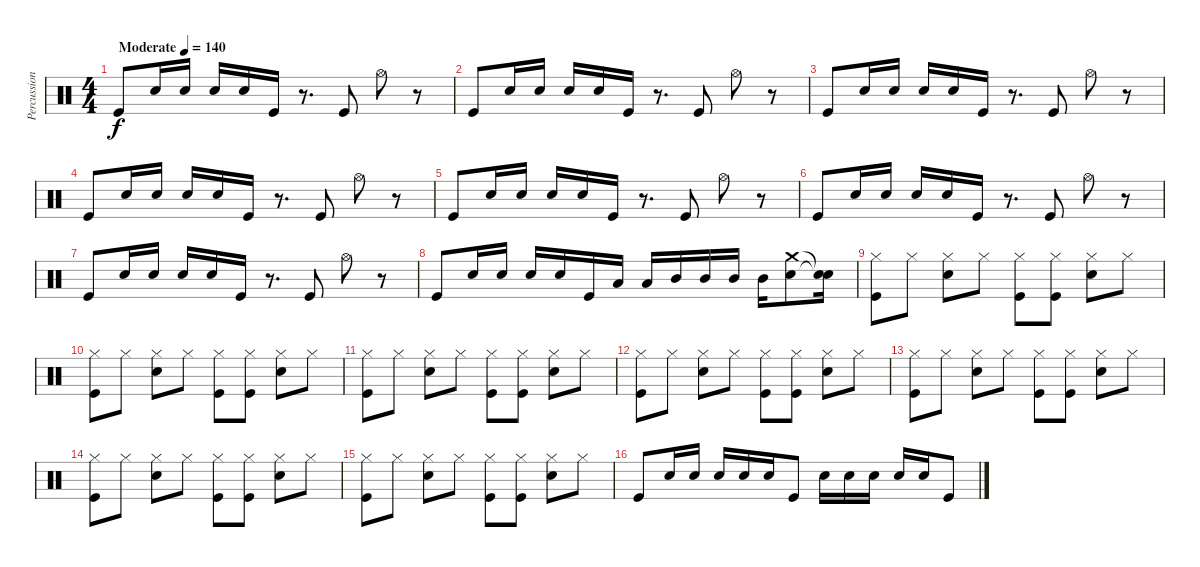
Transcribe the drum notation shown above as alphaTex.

\track ("Percussions" "Percussion") {instrument percussion}
\staff {score}
\articulation defaults
\ts (4 4)
\tempo (140 "Moderate")
\clef neutral
\ks c "Kick (hit)".8{dy f} "Snare (hit) 2".16 "Snare (hit) 2".16 "Snare (hit) 2".16 "Snare (hit) 2".16 "Kick (hit)".16
r.8{d} "Kick (hit)".8 "Hi-Hat (open)".8 r.8 |
"Kick (hit)".8 "Snare (hit) 2".16 "Snare (hit) 2".16 "Snare (hit) 2".16 "Snare (hit) 2".16 "Kick (hit)".16 r.8{d} "Kick (hit)".8 "Hi-Hat (open)".8 r.8 |
"Kick (hit)".8 "Snare (hit) 2".16 "Snare (hit) 2".16 "Snare (hit) 2".16 "Snare (hit) 2".16 "Kick (hit)".16 r.8{d} "Kick (hit)".8 "Hi-Hat (open)".8 r.8 |
"Kick (hit)".8 "Snare (hit) 2".16 "Snare (hit) 2".16 "Snare (hit) 2".16 "Snare (hit) 2".16 "Kick (hit)".16 r.8{d} "Kick (hit)".8 "Hi-Hat (open)".8 r.8 |
"Kick (hit)".8 "Snare (hit) 2".16 "Snare (hit) 2".16 "Snare (hit) 2".16 "Snare (hit) 2".16 "Kick (hit)".16 r.8{d} "Kick (hit)".8 "Hi-Hat (open)".8 r.8 |
"Kick (hit)".8 "Snare (hit) 2".16 "Snare (hit) 2".16 "Snare (hit) 2".16 "Snare (hit) 2".16 "Kick (hit)".16 r.8{d} "Kick (hit)".8 "Hi-Hat (open)".8 r.8 |
"Kick (hit)".8 "Snare (hit) 2".16 "Snare (hit) 2".16 "Snare (hit) 2".16 "Snare (hit) 2".16 "Kick (hit)".16 r.8{d} "Kick (hit)".8 "Hi-Hat (open)".8 r.8 |
"Kick (hit)".8 "Snare (hit) 2".16 "Snare (hit) 2".16 "Snare (hit) 2".16 "Snare (hit) 2".16 "Kick (hit)".16 "Low Tom (hit)".16 "Low Tom (hit)".16 "Mid Tom (hit)".16 "Mid Tom (hit)".16 "Mid Tom (hit)".16 "Mid Tom (hit)".16 ("Crash medium (hit)" "Snare (hit) 2").8 ("Snare (hit)"{t} "Snare (hit)"{t}).16 |
("Hi-Hat (closed)" "Kick (hit)").8 "Hi-Hat (closed)".8 ("Hi-Hat (closed)" "Snare (hit) 2").8 "Hi-Hat (closed)".8 ("Hi-Hat (closed)" "Kick (hit)").8 ("Hi-Hat (closed)" "Kick (hit)").8 ("Hi-Hat (closed)" "Snare (hit) 2").8 "Hi-Hat (closed)".8 |
("Hi-Hat (closed)" "Kick (hit)").8 "Hi-Hat (closed)".8 ("Hi-Hat (closed)" "Snare (hit) 2").8 "Hi-Hat (closed)".8 ("Hi-Hat (closed)" "Kick (hit)").8 ("Hi-Hat (closed)" "Kick (hit)").8 ("Hi-Hat (closed)" "Snare (hit) 2").8 "Hi-Hat (closed)".8 |
("Hi-Hat (closed)" "Kick (hit)").8 "Hi-Hat (closed)".8 ("Hi-Hat (closed)" "Snare (hit) 2").8 "Hi-Hat (closed)".8 ("Hi-Hat (closed)" "Kick (hit)").8 ("Hi-Hat (closed)" "Kick (hit)").8 ("Hi-Hat (closed)" "Snare (hit) 2").8 "Hi-Hat (closed)".8 |
("Hi-Hat (closed)" "Kick (hit)").8 "Hi-Hat (closed)".8 ("Hi-Hat (closed)" "Snare (hit) 2").8 "Hi-Hat (closed)".8 ("Hi-Hat (closed)" "Kick (hit)").8 ("Hi-Hat (closed)" "Kick (hit)").8 ("Hi-Hat (closed)" "Snare (hit) 2").8 "Hi-Hat (closed)".8 |
("Hi-Hat (closed)" "Kick (hit)").8 "Hi-Hat (closed)".8 ("Hi-Hat (closed)" "Snare (hit) 2").8 "Hi-Hat (closed)".8 ("Hi-Hat (closed)" "Kick (hit)").8 ("Hi-Hat (closed)" "Kick (hit)").8 ("Hi-Hat (closed)" "Snare (hit) 2").8 "Hi-Hat (closed)".8 |
("Hi-Hat (closed)" "Kick (hit)").8 "Hi-Hat (closed)".8 ("Hi-Hat (closed)" "Snare (hit) 2").8 "Hi-Hat (closed)".8 ("Hi-Hat (closed)" "Kick (hit)").8 ("Hi-Hat (closed)" "Kick (hit)").8 ("Hi-Hat (closed)" "Snare (hit) 2").8 "Hi-Hat (closed)".8 |
("Hi-Hat (closed)" "Kick (hit)").8 "Hi-Hat (closed)".8 ("Hi-Hat (closed)" "Snare (hit) 2").8 "Hi-Hat (closed)".8 ("Hi-Hat (closed)" "Kick (hit)").8 ("Hi-Hat (closed)" "Kick (hit)").8 ("Hi-Hat (closed)" "Snare (hit) 2").8 "Hi-Hat (closed)".8 |
"Kick (hit)".8 "Snare (hit) 2".16 "Snare (hit) 2".16 "Snare (hit) 2".16 "Snare (hit) 2".16 "Snare (hit) 2".16 "Kick (hit)".8 "Snare (hit) 2".16 "Snare (hit) 2".16 "Snare (hit) 2".16 "Snare (hit) 2".16 "Snare (hit) 2".16 "Kick (hit)".8
